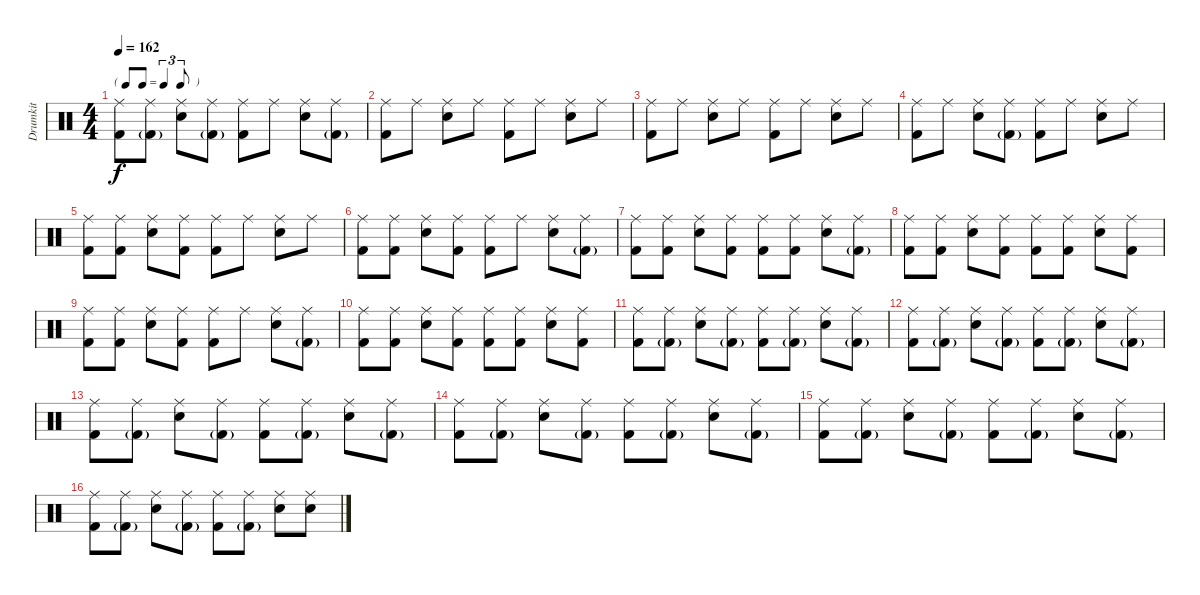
\track ("Drumkit" "Drumkit") {instrument percussion}
\staff {score}
\articulation defaults
\ts (4 4)
\tf triplet8th
\tempo 162
\clef neutral
\ks c
("Kick (hit) 2" "Ride (middle)").8{dy f} ("Kick (hit) 2"{g} "Ride (middle)").8 ("Snare (hit) 2" "Ride (middle)").8 ("Kick (hit) 2"{g} "Ride (middle)").8 ("Kick (hit) 2" "Ride (middle)").8 "Ride (middle)".8 ("Snare (hit) 2" "Ride (middle)").8 ("Kick (hit) 2"{g} "Ride (middle)").8 |
("Kick (hit) 2" "Ride (middle)").8 "Ride (middle)".8 ("Snare (hit) 2" "Ride (middle)").8 "Ride (middle)".8 ("Kick (hit) 2" "Ride (middle)").8 "Ride (middle)".8 ("Snare (hit) 2" "Ride (middle)").8 "Ride (middle)".8 |
("Kick (hit) 2" "Ride (middle)").8 "Ride (middle)".8 ("Snare (hit) 2" "Ride (middle)").8 "Ride (middle)".8 ("Kick (hit) 2" "Ride (middle)").8 "Ride (middle)".8 ("Snare (hit) 2" "Ride (middle)").8 "Ride (middle)".8 |
("Kick (hit) 2" "Ride (middle)").8 "Ride (middle)".8 ("Snare (hit) 2" "Ride (middle)").8 ("Kick (hit) 2"{g} "Ride (middle)").8 ("Kick (hit) 2" "Ride (middle)").8 "Ride (middle)".8 ("Snare (hit) 2" "Ride (middle)").8 "Ride (middle)".8 |
("Kick (hit) 2" "Ride (middle)").8 ("Kick (hit) 2" "Ride (middle)").8 ("Snare (hit) 2" "Ride (middle)").8 ("Kick (hit) 2" "Ride (middle)").8 ("Kick (hit) 2" "Ride (middle)").8 "Ride (middle)".8 ("Snare (hit) 2" "Ride (middle)").8 "Ride (middle)".8 |
("Kick (hit) 2" "Ride (middle)").8 ("Kick (hit) 2" "Ride (middle)").8 ("Snare (hit) 2" "Ride (middle)").8 ("Kick (hit) 2" "Ride (middle)").8 ("Kick (hit) 2" "Ride (middle)").8 "Ride (middle)".8 ("Snare (hit) 2" "Ride (middle)").8 ("Kick (hit) 2"{g} "Ride (middle)").8 |
("Kick (hit) 2" "Ride (middle)").8 ("Kick (hit) 2" "Ride (middle)").8 ("Snare (hit) 2" "Ride (middle)").8 ("Kick (hit) 2" "Ride (middle)").8 ("Kick (hit) 2" "Ride (middle)").8 ("Kick (hit) 2" "Ride (middle)").8 ("Snare (hit) 2" "Ride (middle)").8 ("Kick (hit) 2"{g} "Ride (middle)").8 |
("Kick (hit) 2" "Ride (middle)").8 ("Kick (hit) 2" "Ride (middle)").8 ("Snare (hit) 2" "Ride (middle)").8 ("Kick (hit) 2" "Ride (middle)").8 ("Kick (hit) 2" "Ride (middle)").8 ("Kick (hit) 2" "Ride (middle)").8 ("Snare (hit) 2" "Ride (middle)").8 ("Kick (hit) 2" "Ride (middle)").8 |
("Kick (hit) 2" "Ride (middle)").8 ("Kick (hit) 2" "Ride (middle)").8 ("Snare (hit) 2" "Ride (middle)").8 ("Kick (hit) 2" "Ride (middle)").8 ("Kick (hit) 2" "Ride (middle)").8 "Ride (middle)".8 ("Snare (hit) 2" "Ride (middle)").8 ("Kick (hit) 2"{g} "Ride (middle)").8 |
("Kick (hit) 2" "Ride (middle)").8 ("Kick (hit) 2" "Ride (middle)").8 ("Snare (hit) 2" "Ride (middle)").8 ("Kick (hit) 2" "Ride (middle)").8 ("Kick (hit) 2" "Ride (middle)").8 ("Kick (hit) 2" "Ride (middle)").8 ("Snare (hit) 2" "Ride (middle)").8 ("Kick (hit) 2" "Ride (middle)").8 |
("Kick (hit) 2" "Ride (middle)").8 ("Kick (hit) 2"{g} "Ride (middle)").8 ("Snare (hit) 2" "Ride (middle)").8 ("Kick (hit) 2"{g} "Ride (middle)").8 ("Kick (hit) 2" "Ride (middle)").8 ("Kick (hit) 2"{g} "Ride (middle)").8 ("Snare (hit) 2" "Ride (middle)").8 ("Kick (hit) 2"{g} "Ride (middle)").8 |
("Kick (hit) 2" "Ride (middle)").8 ("Kick (hit) 2"{g} "Ride (middle)").8 ("Snare (hit) 2" "Ride (middle)").8 ("Kick (hit) 2"{g} "Ride (middle)").8 ("Kick (hit) 2" "Ride (middle)").8 ("Kick (hit) 2"{g} "Ride (middle)").8 ("Snare (hit) 2" "Ride (middle)").8 ("Kick (hit) 2"{g} "Ride (middle)").8 |
("Kick (hit) 2" "Ride (middle)").8 ("Kick (hit) 2"{g} "Ride (middle)").8 ("Snare (hit) 2" "Ride (middle)").8 ("Kick (hit) 2"{g} "Ride (middle)").8 ("Kick (hit) 2" "Ride (middle)").8 ("Kick (hit) 2"{g} "Ride (middle)").8 ("Snare (hit) 2" "Ride (middle)").8 ("Kick (hit) 2"{g} "Ride (middle)").8 |
("Kick (hit) 2" "Ride (middle)").8 ("Kick (hit) 2"{g} "Ride (middle)").8 ("Snare (hit) 2" "Ride (middle)").8 ("Kick (hit) 2"{g} "Ride (middle)").8 ("Kick (hit) 2" "Ride (middle)").8 ("Kick (hit) 2"{g} "Ride (middle)").8 ("Snare (hit) 2" "Ride (middle)").8 ("Kick (hit) 2"{g} "Ride (middle)").8 |
("Kick (hit) 2" "Ride (middle)").8 ("Kick (hit) 2"{g} "Ride (middle)").8 ("Snare (hit) 2" "Ride (middle)").8 ("Kick (hit) 2"{g} "Ride (middle)").8 ("Kick (hit) 2" "Ride (middle)").8 ("Kick (hit) 2"{g} "Ride (middle)").8 ("Snare (hit) 2" "Ride (middle)").8 ("Kick (hit) 2"{g} "Ride (middle)").8 |
("Kick (hit) 2" "Ride (middle)").8 ("Kick (hit) 2"{g} "Ride (middle)").8 ("Snare (hit) 2" "Ride (middle)").8 ("Kick (hit) 2"{g} "Ride (middle)").8 ("Kick (hit) 2" "Ride (middle)").8 ("Kick (hit) 2"{g} "Ride (middle)").8 ("Snare (hit) 2" "Ride (middle)").8 ("Snare (hit) 2" "Ride (middle)").8
